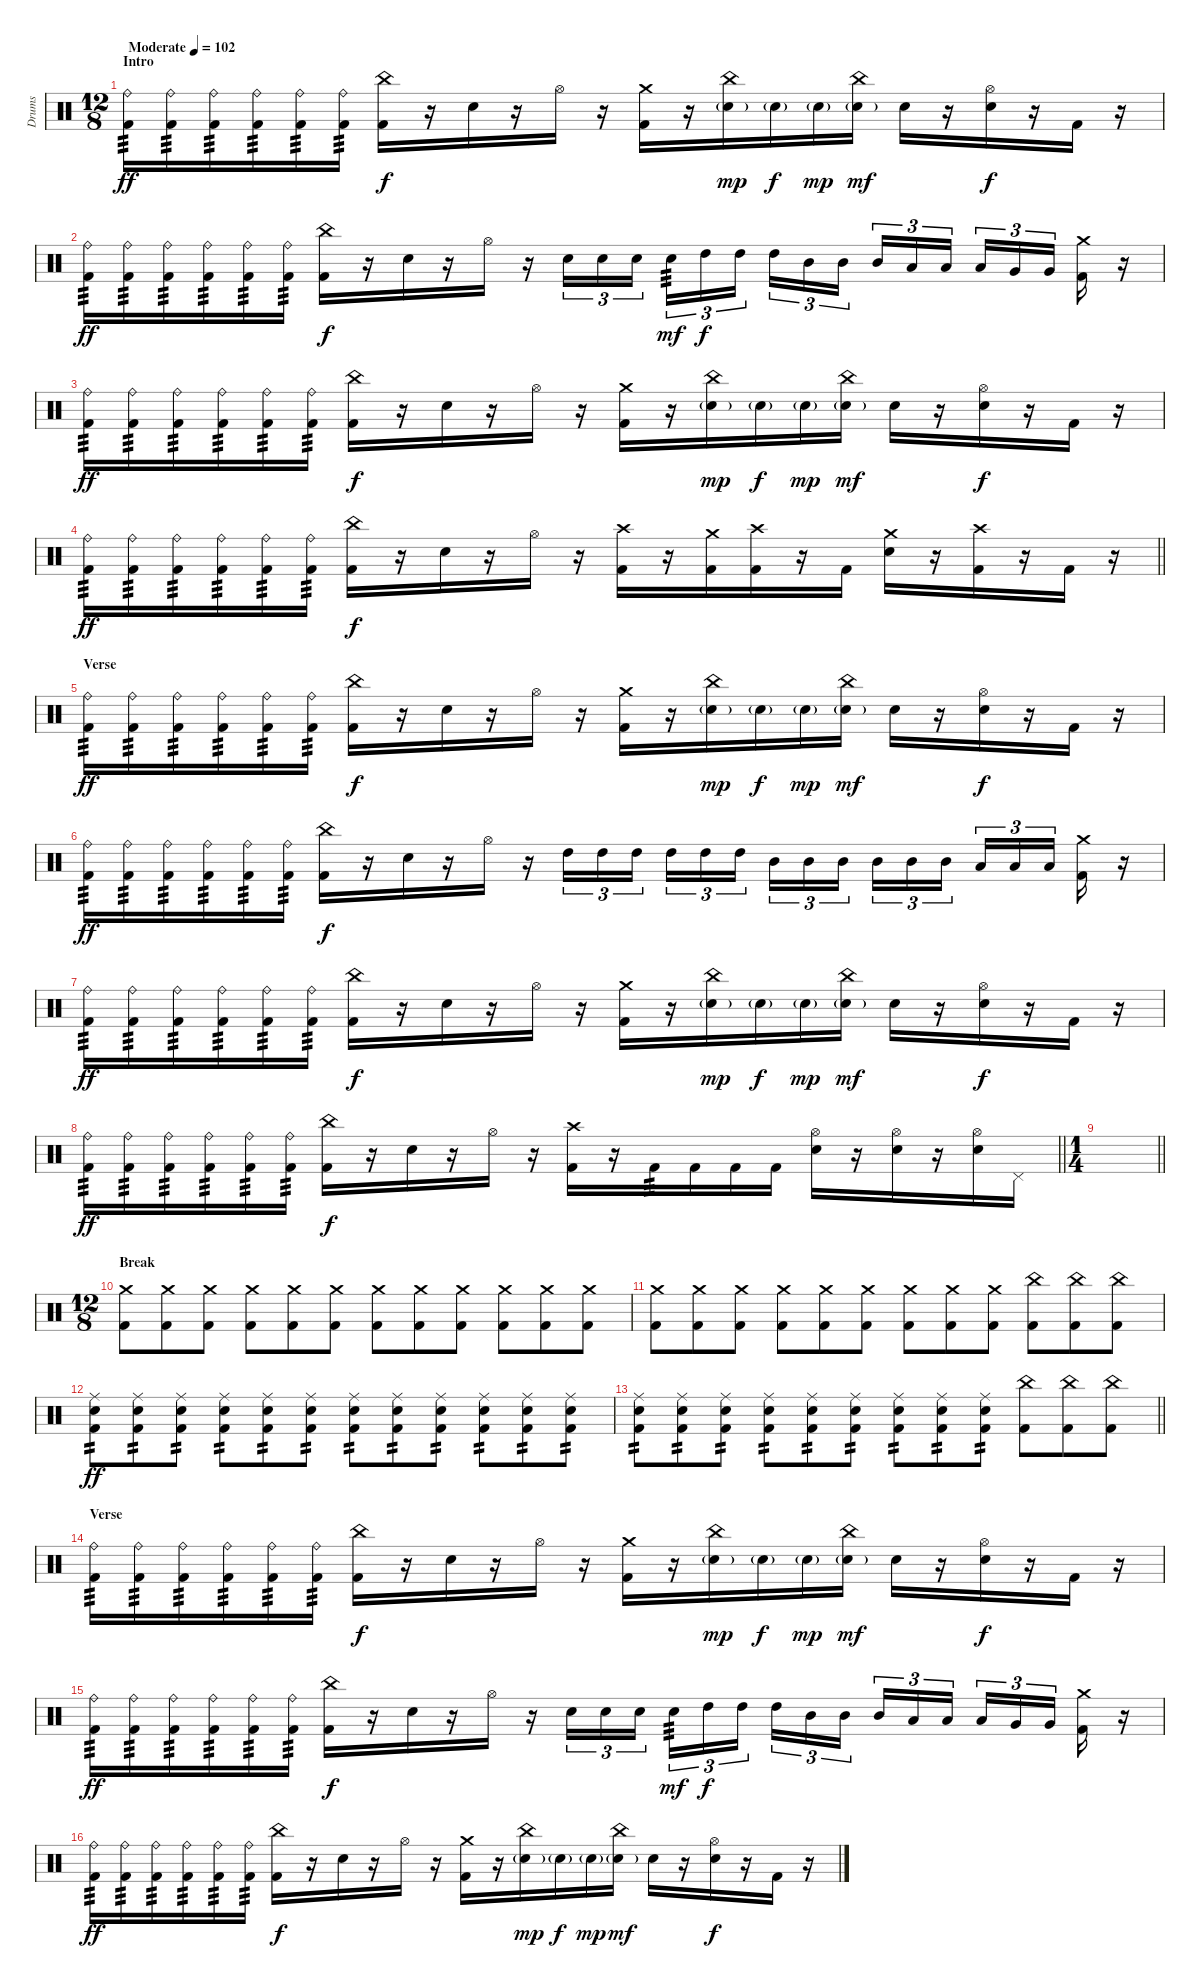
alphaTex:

\track ("Drums" "Drums") {instrument percussion}
\staff {score}
\articulation defaults
\ts (12 8)
\section ("" "Intro")
\tempo (102 "Moderate")
\clef neutral
\ks c
("Ride (bell)" "Kick (hit) 2").16{tp 3 dy ff} ("Ride (bell)" "Kick (hit) 2").16{tp 3} ("Ride (bell)" "Kick (hit) 2").16{tp 3} ("Ride (bell)" "Kick (hit) 2").16{tp 3} ("Ride (bell)" "Kick (hit) 2").16{tp 3} ("Ride (bell)" "Kick (hit) 2").16{tp 3} ("China (hit)" "Kick (hit) 2").16{dy f} r.16 "Snare (hit) 2".16 r.16 "Hi-Hat (open)".16 r.16 ("Crash medium (hit)" "Kick (hit) 2").16 r.16 ("China (hit)" "Snare (hit) 2"{g}).16{dy mp} "Snare (hit) 2"{g}.16{dy f} "Snare (hit) 2"{g}.16{dy mp} ("China (hit)" "Snare (hit) 2"{g}).16{dy mf} "Snare (hit) 2".16 r.16 ("Hi-Hat (open)" "Snare (hit) 2").16{dy f} r.16 "Kick (hit) 2".16 r.16 |
("Ride (bell)" "Kick (hit) 2").16{tp 3 dy ff} ("Ride (bell)" "Kick (hit) 2").16{tp 3} ("Ride (bell)" "Kick (hit) 2").16{tp 3} ("Ride (bell)" "Kick (hit) 2").16{tp 3} ("Ride (bell)" "Kick (hit) 2").16{tp 3} ("Ride (bell)" "Kick (hit) 2").16{tp 3} ("China (hit)" "Kick (hit) 2").16{dy f} r.16 "Snare (hit) 2".16 r.16 "Hi-Hat (open)".16 r.16 "Snare (hit) 2".16{tu (3 2)} "Snare (hit) 2".16{tu (3 2)} "Snare (hit) 2".16{tu (3 2) beam splitsecondary} "Snare (hit) 2".16{tu (3 2) tp 3 dy mf} "High Tom (hit)".16{tu (3 2) dy f} "High Tom (hit)".16{tu (3 2) beam splitsecondary} "High Tom (hit)".16{tu (3 2)} "Mid Tom (hit)".16{tu (3 2)} "Mid Tom (hit)".16{tu (3 2)} "Mid Tom (hit)".16{tu (3 2)} "Low Tom (hit)".16{tu (3 2)} "Low Tom (hit)".16{tu (3 2) beam splitsecondary} "Low Tom (hit)".16{tu (3 2)} "Very Low Tom (hit)".16{tu (3 2)} "Very Low Tom (hit)".16{tu (3 2) beam splitsecondary} ("Crash medium (hit)" "Kick (hit) 2").16 r.16 |
("Ride (bell)" "Kick (hit) 2").16{tp 3 dy ff} ("Ride (bell)" "Kick (hit) 2").16{tp 3} ("Ride (bell)" "Kick (hit) 2").16{tp 3} ("Ride (bell)" "Kick (hit) 2").16{tp 3} ("Ride (bell)" "Kick (hit) 2").16{tp 3} ("Ride (bell)" "Kick (hit) 2").16{tp 3} ("China (hit)" "Kick (hit) 2").16{dy f} r.16 "Snare (hit) 2".16 r.16 "Hi-Hat (open)".16 r.16 ("Crash medium (hit)" "Kick (hit) 2").16 r.16 ("China (hit)" "Snare (hit) 2"{g}).16{dy mp} "Snare (hit) 2"{g}.16{dy f} "Snare (hit) 2"{g}.16{dy mp} ("China (hit)" "Snare (hit) 2"{g}).16{dy mf} "Snare (hit) 2".16 r.16 ("Hi-Hat (open)" "Snare (hit) 2").16{dy f} r.16 "Kick (hit) 2".16 r.16 |
\barLineRight lightlight
("Ride (bell)" "Kick (hit) 2").16{tp 3 dy ff} ("Ride (bell)" "Kick (hit) 2").16{tp 3} ("Ride (bell)" "Kick (hit) 2").16{tp 3} ("Ride (bell)" "Kick (hit) 2").16{tp 3} ("Ride (bell)" "Kick (hit) 2").16{tp 3} ("Ride (bell)" "Kick (hit) 2").16{tp 3} ("China (hit)" "Kick (hit) 2").16{dy f} r.16 "Snare (hit) 2".16 r.16 "Hi-Hat (open)".16 r.16 ("Crash high (hit)" "Kick (hit) 2").16 r.16 ("Crash medium (hit)" "Kick (hit) 2").16 ("Crash high (hit)" "Kick (hit) 2").16 r.16 "Kick (hit) 2".16 ("Crash medium (hit)" "Snare (hit) 2").16 r.16 ("Crash high (hit)" "Kick (hit) 2").16 r.16 "Kick (hit) 2".16 r.16 |
\section ("" "Verse")
("Ride (bell)" "Kick (hit) 2").16{tp 3 dy ff} ("Ride (bell)" "Kick (hit) 2").16{tp 3} ("Ride (bell)" "Kick (hit) 2").16{tp 3} ("Ride (bell)" "Kick (hit) 2").16{tp 3} ("Ride (bell)" "Kick (hit) 2").16{tp 3} ("Ride (bell)" "Kick (hit) 2").16{tp 3} ("China (hit)" "Kick (hit) 2").16{dy f} r.16 "Snare (hit) 2".16 r.16 "Hi-Hat (open)".16 r.16 ("Crash medium (hit)" "Kick (hit) 2").16 r.16 ("China (hit)" "Snare (hit) 2"{g}).16{dy mp} "Snare (hit) 2"{g}.16{dy f} "Snare (hit) 2"{g}.16{dy mp} ("China (hit)" "Snare (hit) 2"{g}).16{dy mf} "Snare (hit) 2".16 r.16 ("Hi-Hat (open)" "Snare (hit) 2").16{dy f} r.16 "Kick (hit) 2".16 r.16 |
("Ride (bell)" "Kick (hit) 2").16{tp 3 dy ff} ("Ride (bell)" "Kick (hit) 2").16{tp 3} ("Ride (bell)" "Kick (hit) 2").16{tp 3} ("Ride (bell)" "Kick (hit) 2").16{tp 3} ("Ride (bell)" "Kick (hit) 2").16{tp 3} ("Ride (bell)" "Kick (hit) 2").16{tp 3} ("China (hit)" "Kick (hit) 2").16{dy f} r.16 "Snare (hit) 2".16 r.16 "Hi-Hat (open)".16 r.16 "High Tom (hit)".16{tu (3 2)} "High Tom (hit)".16{tu (3 2)} "High Tom (hit)".16{tu (3 2) beam splitsecondary} "High Tom (hit)".16{tu (3 2)} "High Tom (hit)".16{tu (3 2)} "High Tom (hit)".16{tu (3 2) beam splitsecondary} "Mid Tom (hit)".16{tu (3 2)} "Mid Tom (hit)".16{tu (3 2)} "Mid Tom (hit)".16{tu (3 2)} "Mid Tom (hit)".16{tu (3 2)} "Mid Tom (hit)".16{tu (3 2)} "Mid Tom (hit)".16{tu (3 2) beam splitsecondary} "Low Tom (hit)".16{tu (3 2)} "Low Tom (hit)".16{tu (3 2)} "Low Tom (hit)".16{tu (3 2) beam splitsecondary} ("Crash medium (hit)" "Kick (hit) 2").16 r.16 |
("Ride (bell)" "Kick (hit) 2").16{tp 3 dy ff} ("Ride (bell)" "Kick (hit) 2").16{tp 3} ("Ride (bell)" "Kick (hit) 2").16{tp 3} ("Ride (bell)" "Kick (hit) 2").16{tp 3} ("Ride (bell)" "Kick (hit) 2").16{tp 3} ("Ride (bell)" "Kick (hit) 2").16{tp 3} ("China (hit)" "Kick (hit) 2").16{dy f} r.16 "Snare (hit) 2".16 r.16 "Hi-Hat (open)".16 r.16 ("Crash medium (hit)" "Kick (hit) 2").16 r.16 ("China (hit)" "Snare (hit) 2"{g}).16{dy mp} "Snare (hit) 2"{g}.16{dy f} "Snare (hit) 2"{g}.16{dy mp} ("China (hit)" "Snare (hit) 2"{g}).16{dy mf} "Snare (hit) 2".16 r.16 ("Hi-Hat (open)" "Snare (hit) 2").16{dy f} r.16 "Kick (hit) 2".16 r.16 |
\barLineRight lightlight
("Ride (bell)" "Kick (hit) 2").16{tp 3 dy ff} ("Ride (bell)" "Kick (hit) 2").16{tp 3} ("Ride (bell)" "Kick (hit) 2").16{tp 3} ("Ride (bell)" "Kick (hit) 2").16{tp 3} ("Ride (bell)" "Kick (hit) 2").16{tp 3} ("Ride (bell)" "Kick (hit) 2").16{tp 3} ("China (hit)" "Kick (hit) 2").16{dy f} r.16 "Snare (hit) 2".16 r.16 "Hi-Hat (open)".16 r.16 ("Crash high (hit)" "Kick (hit) 2").16 r.16 "Kick (hit) 2".16{tp 3} "Kick (hit) 2".16 "Kick (hit) 2".16 "Kick (hit) 2".16 ("Hi-Hat (open)" "Snare (hit) 2").16 r.16 ("Hi-Hat (open)" "Snare (hit) 2").16 r.16 ("Hi-Hat (open)" "Snare (hit) 2").16 "Pedal Hi-Hat (hit)".16 |
\ts (1 4)
\barLineRight lightlight
|
\ts (12 8)
\section ("" "Break")
("Crash medium (hit)" "Kick (hit) 2").8 ("Crash medium (hit)" "Kick (hit) 2").8 ("Crash medium (hit)" "Kick (hit) 2").8 ("Crash medium (hit)" "Kick (hit) 2").8 ("Crash medium (hit)" "Kick (hit) 2").8 ("Crash medium (hit)" "Kick (hit) 2").8 ("Crash medium (hit)" "Kick (hit) 2").8 ("Crash medium (hit)" "Kick (hit) 2").8 ("Crash medium (hit)" "Kick (hit) 2").8 ("Crash medium (hit)" "Kick (hit) 2").8 ("Crash medium (hit)" "Kick (hit) 2").8 ("Crash medium (hit)" "Kick (hit) 2").8 |
("Crash medium (hit)" "Kick (hit) 2").8 ("Crash medium (hit)" "Kick (hit) 2").8 ("Crash medium (hit)" "Kick (hit) 2").8 ("Crash medium (hit)" "Kick (hit) 2").8 ("Crash medium (hit)" "Kick (hit) 2").8 ("Crash medium (hit)" "Kick (hit) 2").8 ("Crash medium (hit)" "Kick (hit) 2").8 ("Crash medium (hit)" "Kick (hit) 2").8 ("Crash medium (hit)" "Kick (hit) 2").8 ("China (hit)" "Kick (hit) 2").8 ("China (hit)" "Kick (hit) 2").8 ("China (hit)" "Kick (hit) 2").8 |
("Ride (middle)" "Snare (hit) 2" "Kick (hit) 2").8{tp 2 dy ff} ("Ride (middle)" "Snare (hit) 2" "Kick (hit) 2").8{tp 2} ("Ride (middle)" "Snare (hit) 2" "Kick (hit) 2").8{tp 2} ("Ride (middle)" "Snare (hit) 2" "Kick (hit) 2").8{tp 2} ("Ride (middle)" "Snare (hit) 2" "Kick (hit) 2").8{tp 2} ("Ride (middle)" "Snare (hit) 2" "Kick (hit) 2").8{tp 2} ("Ride (middle)" "Snare (hit) 2" "Kick (hit) 2").8{tp 2} ("Ride (middle)" "Snare (hit) 2" "Kick (hit) 2").8{tp 2} ("Ride (middle)" "Snare (hit) 2" "Kick (hit) 2").8{tp 2} ("Ride (middle)" "Snare (hit) 2" "Kick (hit) 2").8{tp 2} ("Ride (middle)" "Snare (hit) 2" "Kick (hit) 2").8{tp 2} ("Ride (middle)" "Snare (hit) 2" "Kick (hit) 2").8{tp 2} |
\barLineRight lightlight
("Ride (middle)" "Snare (hit) 2" "Kick (hit) 2").8{tp 2} ("Ride (middle)" "Snare (hit) 2" "Kick (hit) 2").8{tp 2} ("Ride (middle)" "Snare (hit) 2" "Kick (hit) 2").8{tp 2} ("Ride (middle)" "Snare (hit) 2" "Kick (hit) 2").8{tp 2} ("Ride (middle)" "Snare (hit) 2" "Kick (hit) 2").8{tp 2} ("Ride (middle)" "Snare (hit) 2" "Kick (hit) 2").8{tp 2} ("Ride (middle)" "Snare (hit) 2" "Kick (hit) 2").8{tp 2} ("Ride (middle)" "Snare (hit) 2" "Kick (hit) 2").8{tp 2} ("Ride (middle)" "Snare (hit) 2" "Kick (hit) 2").8{tp 2} ("China (hit)" "Kick (hit) 2").8 ("China (hit)" "Kick (hit) 2").8 ("China (hit)" "Kick (hit) 2").8 |
\section ("" "Verse")
("Ride (bell)" "Kick (hit) 2").16{tp 3} ("Ride (bell)" "Kick (hit) 2").16{tp 3} ("Ride (bell)" "Kick (hit) 2").16{tp 3} ("Ride (bell)" "Kick (hit) 2").16{tp 3} ("Ride (bell)" "Kick (hit) 2").16{tp 3} ("Ride (bell)" "Kick (hit) 2").16{tp 3} ("China (hit)" "Kick (hit) 2").16{dy f} r.16 "Snare (hit) 2".16 r.16 "Hi-Hat (open)".16 r.16 ("Crash medium (hit)" "Kick (hit) 2").16 r.16 ("China (hit)" "Snare (hit) 2"{g}).16{dy mp} "Snare (hit) 2"{g}.16{dy f} "Snare (hit) 2"{g}.16{dy mp} ("China (hit)" "Snare (hit) 2"{g}).16{dy mf} "Snare (hit) 2".16 r.16 ("Hi-Hat (open)" "Snare (hit) 2").16{dy f} r.16 "Kick (hit) 2".16 r.16 |
("Ride (bell)" "Kick (hit) 2").16{tp 3 dy ff} ("Ride (bell)" "Kick (hit) 2").16{tp 3} ("Ride (bell)" "Kick (hit) 2").16{tp 3} ("Ride (bell)" "Kick (hit) 2").16{tp 3} ("Ride (bell)" "Kick (hit) 2").16{tp 3} ("Ride (bell)" "Kick (hit) 2").16{tp 3} ("China (hit)" "Kick (hit) 2").16{dy f} r.16 "Snare (hit) 2".16 r.16 "Hi-Hat (open)".16 r.16 "Snare (hit) 2".16{tu (3 2)} "Snare (hit) 2".16{tu (3 2)} "Snare (hit) 2".16{tu (3 2) beam splitsecondary} "Snare (hit) 2".16{tu (3 2) tp 3 dy mf} "High Tom (hit)".16{tu (3 2) dy f} "High Tom (hit)".16{tu (3 2) beam splitsecondary} "High Tom (hit)".16{tu (3 2)} "Mid Tom (hit)".16{tu (3 2)} "Mid Tom (hit)".16{tu (3 2)} "Mid Tom (hit)".16{tu (3 2)} "Low Tom (hit)".16{tu (3 2)} "Low Tom (hit)".16{tu (3 2) beam splitsecondary} "Low Tom (hit)".16{tu (3 2)} "Very Low Tom (hit)".16{tu (3 2)} "Very Low Tom (hit)".16{tu (3 2) beam splitsecondary} ("Crash medium (hit)" "Kick (hit) 2").16 r.16 |
("Ride (bell)" "Kick (hit) 2").16{tp 3 dy ff} ("Ride (bell)" "Kick (hit) 2").16{tp 3} ("Ride (bell)" "Kick (hit) 2").16{tp 3} ("Ride (bell)" "Kick (hit) 2").16{tp 3} ("Ride (bell)" "Kick (hit) 2").16{tp 3} ("Ride (bell)" "Kick (hit) 2").16{tp 3} ("China (hit)" "Kick (hit) 2").16{dy f} r.16 "Snare (hit) 2".16 r.16 "Hi-Hat (open)".16 r.16 ("Crash medium (hit)" "Kick (hit) 2").16 r.16 ("China (hit)" "Snare (hit) 2"{g}).16{dy mp} "Snare (hit) 2"{g}.16{dy f} "Snare (hit) 2"{g}.16{dy mp} ("China (hit)" "Snare (hit) 2"{g}).16{dy mf} "Snare (hit) 2".16 r.16 ("Hi-Hat (open)" "Snare (hit) 2").16{dy f} r.16 "Kick (hit) 2".16 r.16
